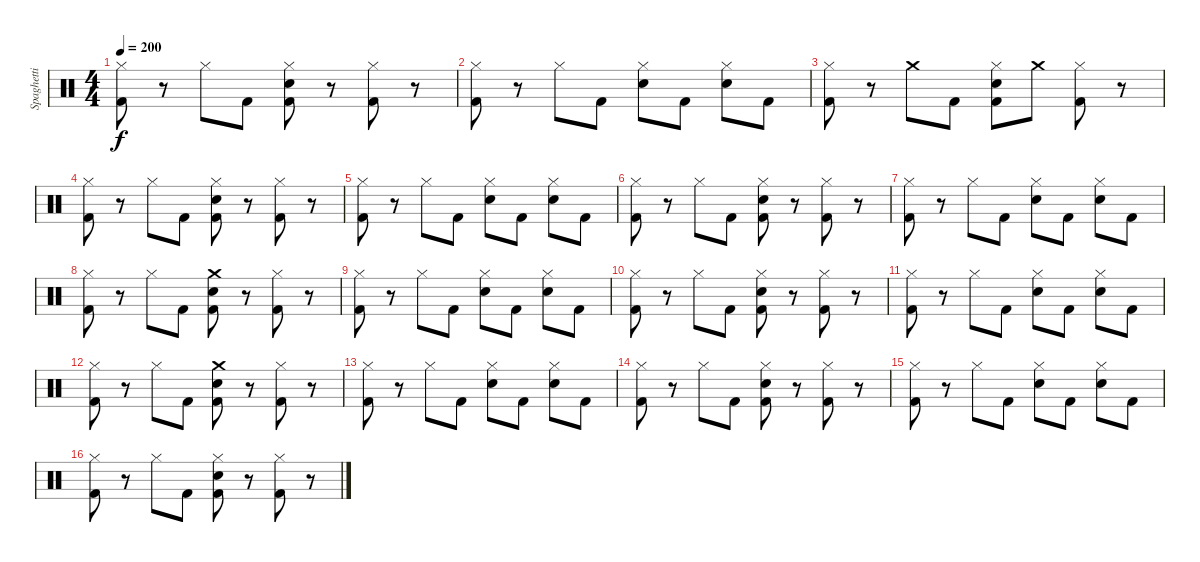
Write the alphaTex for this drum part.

\track ("Spaghetti" "Spaghetti") {instrument percussion}
\staff {score}
\articulation defaults
\ts (4 4)
\tempo 200
\clef neutral
\ks c
("Hi-Hat (closed)" "Kick (hit) 2").8{dy f} r.8 "Hi-Hat (closed)".8 "Kick (hit) 2".8 ("Hi-Hat (closed)" "Snare (hit) 2" "Kick (hit) 2").8 r.8 ("Hi-Hat (closed)" "Kick (hit) 2").8 r.8 |
("Hi-Hat (closed)" "Kick (hit) 2").8 r.8 "Hi-Hat (closed)".8 "Kick (hit) 2".8 ("Hi-Hat (closed)" "Snare (hit) 2").8 "Kick (hit) 2".8 ("Hi-Hat (closed)" "Snare (hit) 2").8 "Kick (hit) 2".8 |
("Hi-Hat (closed)" "Kick (hit) 2").8 r.8 "Crash medium (hit)".8 "Kick (hit) 2".8 ("Hi-Hat (closed)" "Snare (hit) 2" "Kick (hit) 2").8 "Crash medium (hit)".8 ("Hi-Hat (closed)" "Kick (hit) 2").8 r.8 |
("Hi-Hat (closed)" "Kick (hit) 2").8 r.8 "Hi-Hat (closed)".8 "Kick (hit) 2".8 ("Hi-Hat (closed)" "Snare (hit) 2" "Kick (hit) 2").8 r.8 ("Hi-Hat (closed)" "Kick (hit) 2").8 r.8 |
("Hi-Hat (closed)" "Kick (hit) 2").8 r.8 "Hi-Hat (closed)".8 "Kick (hit) 2".8 ("Hi-Hat (closed)" "Snare (hit) 2").8 "Kick (hit) 2".8 ("Hi-Hat (closed)" "Snare (hit) 2").8 "Kick (hit) 2".8 |
("Hi-Hat (closed)" "Kick (hit) 2").8 r.8 "Hi-Hat (closed)".8 "Kick (hit) 2".8 ("Hi-Hat (closed)" "Snare (hit) 2" "Kick (hit) 2").8 r.8 ("Hi-Hat (closed)" "Kick (hit) 2").8 r.8 |
("Hi-Hat (closed)" "Kick (hit) 2").8 r.8 "Hi-Hat (closed)".8 "Kick (hit) 2".8 ("Hi-Hat (closed)" "Snare (hit) 2").8 "Kick (hit) 2".8 ("Hi-Hat (closed)" "Snare (hit) 2").8 "Kick (hit) 2".8 |
("Hi-Hat (closed)" "Kick (hit) 2").8 r.8 "Hi-Hat (closed)".8 "Kick (hit) 2".8 ("Crash medium (hit)" "Snare (hit) 2" "Kick (hit) 2").8 r.8 ("Hi-Hat (closed)" "Kick (hit) 2").8 r.8 |
("Hi-Hat (closed)" "Kick (hit) 2").8 r.8 "Hi-Hat (closed)".8 "Kick (hit) 2".8 ("Hi-Hat (closed)" "Snare (hit) 2").8 "Kick (hit) 2".8 ("Hi-Hat (closed)" "Snare (hit) 2").8 "Kick (hit) 2".8 |
("Hi-Hat (closed)" "Kick (hit) 2").8 r.8 "Hi-Hat (closed)".8 "Kick (hit) 2".8 ("Hi-Hat (closed)" "Snare (hit) 2" "Kick (hit) 2").8 r.8 ("Hi-Hat (closed)" "Kick (hit) 2").8 r.8 |
("Hi-Hat (closed)" "Kick (hit) 2").8 r.8 "Hi-Hat (closed)".8 "Kick (hit) 2".8 ("Hi-Hat (closed)" "Snare (hit) 2").8 "Kick (hit) 2".8 ("Hi-Hat (closed)" "Snare (hit) 2").8 "Kick (hit) 2".8 |
("Hi-Hat (closed)" "Kick (hit) 2").8 r.8 "Hi-Hat (closed)".8 "Kick (hit) 2".8 ("Crash medium (hit)" "Snare (hit) 2" "Kick (hit) 2").8 r.8 ("Hi-Hat (closed)" "Kick (hit) 2").8 r.8 |
("Hi-Hat (closed)" "Kick (hit) 2").8 r.8 "Hi-Hat (closed)".8 "Kick (hit) 2".8 ("Hi-Hat (closed)" "Snare (hit) 2").8 "Kick (hit) 2".8 ("Hi-Hat (closed)" "Snare (hit) 2").8 "Kick (hit) 2".8 |
("Hi-Hat (closed)" "Kick (hit) 2").8 r.8 "Hi-Hat (closed)".8 "Kick (hit) 2".8 ("Hi-Hat (closed)" "Snare (hit) 2" "Kick (hit) 2").8 r.8 ("Hi-Hat (closed)" "Kick (hit) 2").8 r.8 |
("Hi-Hat (closed)" "Kick (hit) 2").8 r.8 "Hi-Hat (closed)".8 "Kick (hit) 2".8 ("Hi-Hat (closed)" "Snare (hit) 2").8 "Kick (hit) 2".8 ("Hi-Hat (closed)" "Snare (hit) 2").8 "Kick (hit) 2".8 |
("Hi-Hat (closed)" "Kick (hit) 2").8 r.8 "Hi-Hat (closed)".8 "Kick (hit) 2".8 ("Hi-Hat (closed)" "Snare (hit) 2" "Kick (hit) 2").8 r.8 ("Hi-Hat (closed)" "Kick (hit) 2").8 r.8
